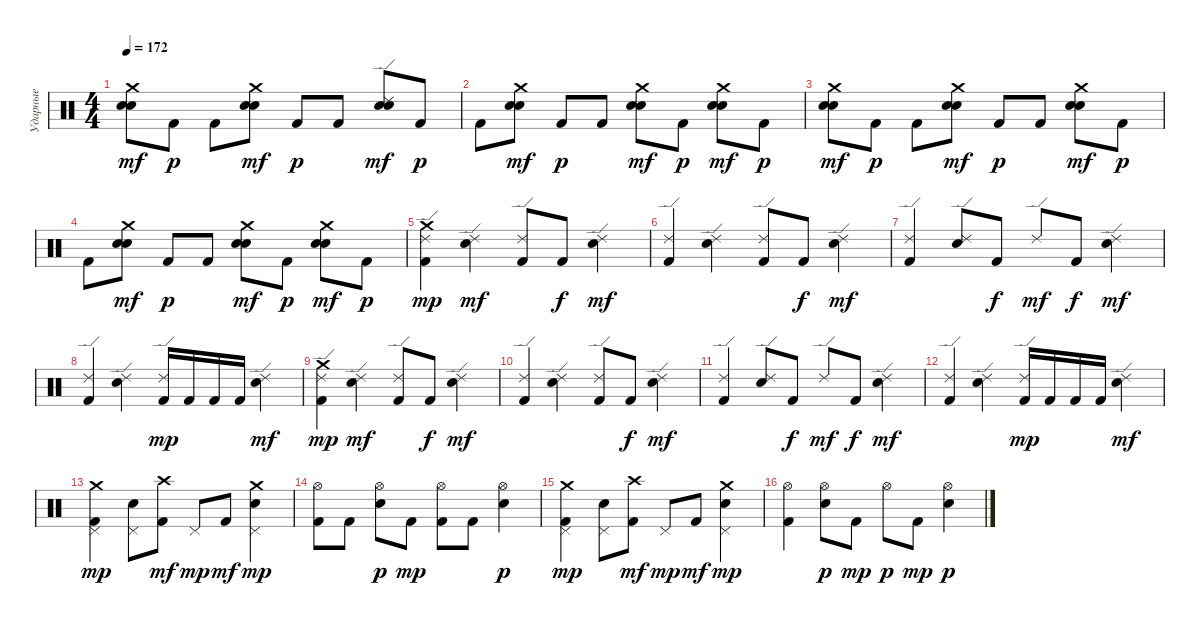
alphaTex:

\track ("Ударные" "Ударные") {instrument percussion}
\staff {score}
\articulation defaults
\ts (4 4)
\tempo 172
\clef neutral
\ks c
("Crash medium (hit)" "Electric Snare (hit)" "Snare (hit) 2").8{dy mf} "Kick (hit) 2".8{dy p} "Kick (hit) 2".8 ("Crash medium (hit)" "Electric Snare (hit)" "Snare (hit) 2").8{dy mf} "Kick (hit) 2".8{dy p} "Kick (hit) 2".8 ("Ride (edge) 2" "Electric Snare (hit)" "Snare (hit) 2").8{dy mf} "Kick (hit) 2".8{dy p} |
"Kick (hit) 2".8 ("Crash medium (hit)" "Electric Snare (hit)" "Snare (hit) 2").8{dy mf} "Kick (hit) 2".8{dy p} "Kick (hit) 2".8 ("Crash medium (hit)" "Electric Snare (hit)" "Snare (hit) 2").8{dy mf} "Kick (hit) 2".8{dy p} ("Crash medium (hit)" "Electric Snare (hit)" "Snare (hit) 2").8{dy mf} "Kick (hit) 2".8{dy p} |
("Crash medium (hit)" "Electric Snare (hit)" "Snare (hit) 2").8{dy mf} "Kick (hit) 2".8{dy p} "Kick (hit) 2".8 ("Crash medium (hit)" "Electric Snare (hit)" "Snare (hit) 2").8{dy mf} "Kick (hit) 2".8{dy p} "Kick (hit) 2".8 ("Crash medium (hit)" "Electric Snare (hit)" "Snare (hit) 2").8{dy mf} "Kick (hit) 2".8{dy p} |
"Kick (hit) 2".8 ("Crash medium (hit)" "Electric Snare (hit)" "Snare (hit) 2").8{dy mf} "Kick (hit) 2".8{dy p} "Kick (hit) 2".8 ("Crash medium (hit)" "Electric Snare (hit)" "Snare (hit) 2").8{dy mf} "Kick (hit) 2".8{dy p} ("Crash medium (hit)" "Electric Snare (hit)" "Snare (hit) 2").8{dy mf} "Kick (hit) 2".8{dy p} |
("Ride (edge) 2" "Crash medium (hit)" "Kick (hit) 2").4{dy mp} ("Ride (edge) 2" "Electric Snare (hit)").4{dy mf} ("Ride (edge) 2" "Kick (hit) 2").8 "Kick (hit) 2".8{dy f} ("Ride (edge) 2" "Electric Snare (hit)").4{dy mf} |
("Ride (edge) 2" "Kick (hit) 2").4 ("Ride (edge) 2" "Electric Snare (hit)").4 ("Ride (edge) 2" "Kick (hit) 2").8 "Kick (hit) 2".8{dy f} ("Ride (edge) 2" "Electric Snare (hit)").4{dy mf} |
("Ride (edge) 2" "Kick (hit) 2").4 ("Ride (edge) 2" "Electric Snare (hit)").8 "Kick (hit) 2".8{dy f} "Ride (edge) 2".8{dy mf} "Kick (hit) 2".8{dy f} ("Ride (edge) 2" "Electric Snare (hit)").4{dy mf} |
("Ride (edge) 2" "Kick (hit) 2").4 ("Ride (edge) 2" "Electric Snare (hit)").4 ("Ride (edge) 2" "Kick (hit) 2").16{dy mp} "Kick (hit) 2".16 "Kick (hit) 2".16 "Kick (hit) 2".16 ("Ride (edge) 2" "Electric Snare (hit)").4{dy mf} |
("Ride (edge) 2" "Crash medium (hit)" "Kick (hit) 2").4{dy mp} ("Ride (edge) 2" "Electric Snare (hit)").4{dy mf} ("Ride (edge) 2" "Kick (hit) 2").8 "Kick (hit) 2".8{dy f} ("Ride (edge) 2" "Electric Snare (hit)").4{dy mf} |
("Ride (edge) 2" "Kick (hit) 2").4 ("Ride (edge) 2" "Electric Snare (hit)").4 ("Ride (edge) 2" "Kick (hit) 2").8 "Kick (hit) 2".8{dy f} ("Ride (edge) 2" "Electric Snare (hit)").4{dy mf} |
("Ride (edge) 2" "Kick (hit) 2").4 ("Ride (edge) 2" "Electric Snare (hit)").8 "Kick (hit) 2".8{dy f} "Ride (edge) 2".8{dy mf} "Kick (hit) 2".8{dy f} ("Ride (edge) 2" "Electric Snare (hit)").4{dy mf} |
("Ride (edge) 2" "Kick (hit) 2").4 ("Ride (edge) 2" "Electric Snare (hit)").4 ("Ride (edge) 2" "Kick (hit) 2").16{dy mp} "Kick (hit) 2".16 "Kick (hit) 2".16 "Kick (hit) 2".16 ("Ride (edge) 2" "Electric Snare (hit)").4{dy mf} |
\section ("" "")
("Crash medium (hit)" "Kick (hit) 2" "Pedal Hi-Hat (hit)").4{dy mp} ("Electric Snare (hit)" "Pedal Hi-Hat (hit)").8 ("Crash high (hit)" "Kick (hit) 2").8{dy mf} "Pedal Hi-Hat (hit)".8{dy mp} "Kick (hit) 2".8{dy mf} ("Crash medium (hit)" "Electric Snare (hit)" "Pedal Hi-Hat (hit)").4{dy mp} |
("Hi-Hat (open)" "Kick (hit) 2").8 "Kick (hit) 2".8 ("Hi-Hat (open)" "Electric Snare (hit)").8{dy p} "Kick (hit) 2".8{dy mp} ("Hi-Hat (open)" "Kick (hit) 2").8 "Kick (hit) 2".8 ("Hi-Hat (open)" "Electric Snare (hit)").4{dy p} |
("Crash medium (hit)" "Kick (hit) 2" "Pedal Hi-Hat (hit)").4{dy mp} ("Electric Snare (hit)" "Pedal Hi-Hat (hit)").8 ("Crash high (hit)" "Kick (hit) 2").8{dy mf} "Pedal Hi-Hat (hit)".8{dy mp} "Kick (hit) 2".8{dy mf} ("Crash medium (hit)" "Electric Snare (hit)" "Pedal Hi-Hat (hit)").4{dy mp} |
("Hi-Hat (open)" "Kick (hit) 2").4 ("Hi-Hat (open)" "Electric Snare (hit)").8{dy p} "Kick (hit) 2".8{dy mp} "Hi-Hat (open)".8{dy p} "Kick (hit) 2".8{dy mp} ("Hi-Hat (open)" "Electric Snare (hit)").4{dy p}
